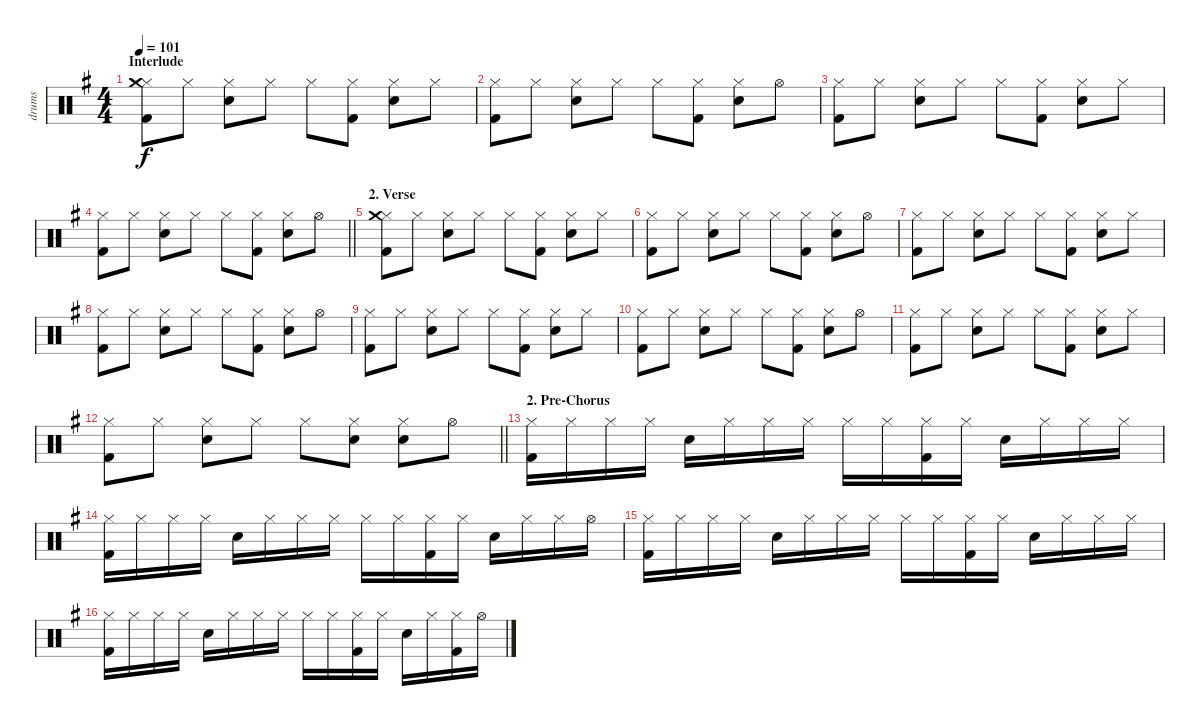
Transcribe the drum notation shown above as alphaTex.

\track ("drums" "drums") {instrument percussion}
\staff {score}
\articulation defaults
\ts (4 4)
\section ("" "Interlude")
\tempo 101
\clef neutral
\ks eminor
("Hi-Hat (closed)" "Crash medium (hit)" "Kick (hit) 2").8{dy f} "Hi-Hat (closed)".8 ("Hi-Hat (closed)" "Snare (hit) 2").8 "Hi-Hat (closed)".8 "Hi-Hat (closed)".8 ("Hi-Hat (closed)" "Kick (hit) 2").8 ("Hi-Hat (closed)" "Snare (hit) 2").8 "Hi-Hat (closed)".8 |
("Hi-Hat (closed)" "Kick (hit) 2").8 "Hi-Hat (closed)".8 ("Hi-Hat (closed)" "Snare (hit) 2").8 "Hi-Hat (closed)".8 "Hi-Hat (closed)".8 ("Hi-Hat (closed)" "Kick (hit) 2").8 ("Hi-Hat (closed)" "Snare (hit) 2").8 "Hi-Hat (open)".8 |
("Hi-Hat (closed)" "Kick (hit) 2").8 "Hi-Hat (closed)".8 ("Hi-Hat (closed)" "Snare (hit) 2").8 "Hi-Hat (closed)".8 "Hi-Hat (closed)".8 ("Hi-Hat (closed)" "Kick (hit) 2").8 ("Hi-Hat (closed)" "Snare (hit) 2").8 "Hi-Hat (closed)".8 |
\barLineRight lightlight
("Hi-Hat (closed)" "Kick (hit) 2").8 "Hi-Hat (closed)".8 ("Hi-Hat (closed)" "Snare (hit) 2").8 "Hi-Hat (closed)".8 "Hi-Hat (closed)".8 ("Hi-Hat (closed)" "Kick (hit) 2").8 ("Hi-Hat (closed)" "Snare (hit) 2").8 "Hi-Hat (open)".8 |
\section ("" "2. Verse")
("Hi-Hat (closed)" "Crash medium (hit)" "Kick (hit) 2").8 "Hi-Hat (closed)".8 ("Hi-Hat (closed)" "Snare (hit) 2").8 "Hi-Hat (closed)".8 "Hi-Hat (closed)".8 ("Hi-Hat (closed)" "Kick (hit) 2").8 ("Hi-Hat (closed)" "Snare (hit) 2").8 "Hi-Hat (closed)".8 |
("Hi-Hat (closed)" "Kick (hit) 2").8 "Hi-Hat (closed)".8 ("Hi-Hat (closed)" "Snare (hit) 2").8 "Hi-Hat (closed)".8 "Hi-Hat (closed)".8 ("Hi-Hat (closed)" "Kick (hit) 2").8 ("Hi-Hat (closed)" "Snare (hit) 2").8 "Hi-Hat (open)".8 |
("Hi-Hat (closed)" "Kick (hit) 2").8 "Hi-Hat (closed)".8 ("Hi-Hat (closed)" "Snare (hit) 2").8 "Hi-Hat (closed)".8 "Hi-Hat (closed)".8 ("Hi-Hat (closed)" "Kick (hit) 2").8 ("Hi-Hat (closed)" "Snare (hit) 2").8 "Hi-Hat (closed)".8 |
("Hi-Hat (closed)" "Kick (hit) 2").8 "Hi-Hat (closed)".8 ("Hi-Hat (closed)" "Snare (hit) 2").8 "Hi-Hat (closed)".8 "Hi-Hat (closed)".8 ("Hi-Hat (closed)" "Kick (hit) 2").8 ("Hi-Hat (closed)" "Snare (hit) 2").8 "Hi-Hat (open)".8 |
("Hi-Hat (closed)" "Kick (hit) 2").8 "Hi-Hat (closed)".8 ("Hi-Hat (closed)" "Snare (hit) 2").8 "Hi-Hat (closed)".8 "Hi-Hat (closed)".8 ("Hi-Hat (closed)" "Kick (hit) 2").8 ("Hi-Hat (closed)" "Snare (hit) 2").8 "Hi-Hat (closed)".8 |
("Hi-Hat (closed)" "Kick (hit) 2").8 "Hi-Hat (closed)".8 ("Hi-Hat (closed)" "Snare (hit) 2").8 "Hi-Hat (closed)".8 "Hi-Hat (closed)".8 ("Hi-Hat (closed)" "Kick (hit) 2").8 ("Hi-Hat (closed)" "Snare (hit) 2").8 "Hi-Hat (open)".8 |
("Hi-Hat (closed)" "Kick (hit) 2").8 "Hi-Hat (closed)".8 ("Hi-Hat (closed)" "Snare (hit) 2").8 "Hi-Hat (closed)".8 "Hi-Hat (closed)".8 ("Hi-Hat (closed)" "Kick (hit) 2").8 ("Hi-Hat (closed)" "Snare (hit) 2").8 "Hi-Hat (closed)".8 |
\barLineRight lightlight
("Hi-Hat (closed)" "Kick (hit) 2").8 "Hi-Hat (closed)".8 ("Hi-Hat (closed)" "Snare (hit) 2").8 "Hi-Hat (closed)".8 "Hi-Hat (closed)".8 ("Hi-Hat (closed)" "Snare (hit) 2").8 ("Hi-Hat (closed)" "Snare (hit) 2").8 "Hi-Hat (open)".8 |
\section ("" "2. Pre-Chorus")
("Hi-Hat (closed)" "Kick (hit) 2").16 "Hi-Hat (closed)".16 "Hi-Hat (closed)".16 "Hi-Hat (closed)".16 "Snare (hit) 2".16 "Hi-Hat (closed)".16 "Hi-Hat (closed)".16 "Hi-Hat (closed)".16 "Hi-Hat (closed)".16 "Hi-Hat (closed)".16 ("Hi-Hat (closed)" "Kick (hit) 2").16 "Hi-Hat (closed)".16 "Snare (hit) 2".16 "Hi-Hat (closed)".16 "Hi-Hat (closed)".16 "Hi-Hat (closed)".16 |
("Hi-Hat (closed)" "Kick (hit) 2").16 "Hi-Hat (closed)".16 "Hi-Hat (closed)".16 "Hi-Hat (closed)".16 "Snare (hit) 2".16 "Hi-Hat (closed)".16 "Hi-Hat (closed)".16 "Hi-Hat (closed)".16 "Hi-Hat (closed)".16 "Hi-Hat (closed)".16 ("Hi-Hat (closed)" "Kick (hit) 2").16 "Hi-Hat (closed)".16 "Snare (hit) 2".16 "Hi-Hat (closed)".16 "Hi-Hat (closed)".16 "Hi-Hat (open)".16 |
("Hi-Hat (closed)" "Kick (hit) 2").16 "Hi-Hat (closed)".16 "Hi-Hat (closed)".16 "Hi-Hat (closed)".16 "Snare (hit) 2".16 "Hi-Hat (closed)".16 "Hi-Hat (closed)".16 "Hi-Hat (closed)".16 "Hi-Hat (closed)".16 "Hi-Hat (closed)".16 ("Hi-Hat (closed)" "Kick (hit) 2").16 "Hi-Hat (closed)".16 "Snare (hit) 2".16 "Hi-Hat (closed)".16 "Hi-Hat (closed)".16 "Hi-Hat (closed)".16 |
("Hi-Hat (closed)" "Kick (hit) 2").16 "Hi-Hat (closed)".16 "Hi-Hat (closed)".16 "Hi-Hat (closed)".16 "Snare (hit) 2".16 "Hi-Hat (closed)".16 "Hi-Hat (closed)".16 "Hi-Hat (closed)".16 "Hi-Hat (closed)".16 "Hi-Hat (closed)".16 ("Hi-Hat (closed)" "Kick (hit) 2").16 "Hi-Hat (closed)".16 "Snare (hit) 2".16 "Hi-Hat (closed)".16 ("Hi-Hat (closed)" "Kick (hit) 2").16 "Hi-Hat (open)".16
